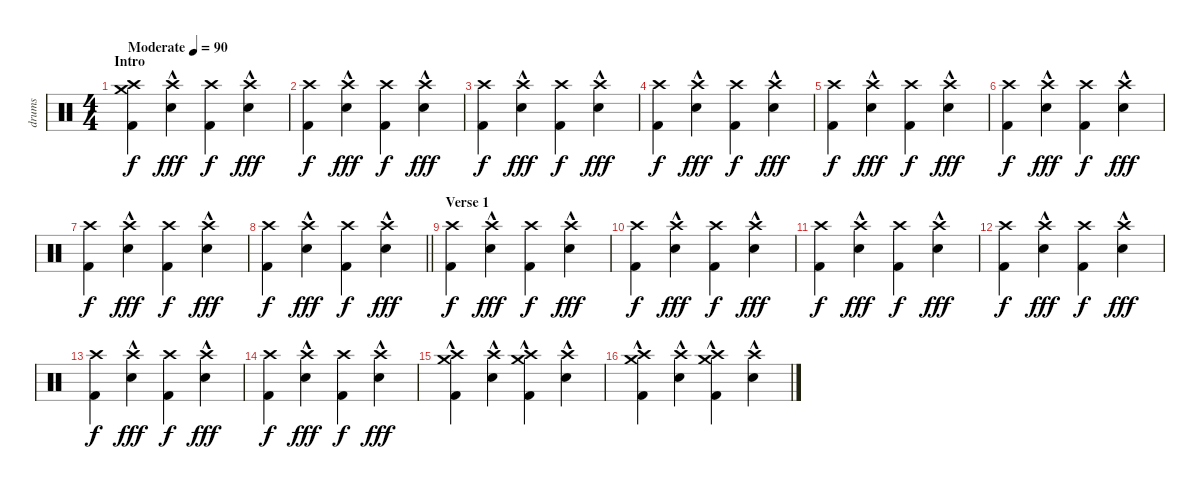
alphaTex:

\track ("drums" "drums") {instrument percussion}
\staff {score}
\articulation defaults
\ts (4 4)
\section ("" "Intro")
\tempo (90 "Moderate")
\clef neutral
\ks c
("Kick (hit) 2" "Crash medium (hit)" "Crash high (hit)").4{dy f} ("Electric Snare (hit)"{hac} "Crash high (hit)").4{dy fff} ("Kick (hit) 2" "Crash high (hit)").4{dy f} ("Electric Snare (hit)"{hac} "Crash high (hit)").4{dy fff} |
("Kick (hit) 2" "Crash high (hit)").4{dy f} ("Electric Snare (hit)"{hac} "Crash high (hit)").4{dy fff} ("Kick (hit) 2" "Crash high (hit)").4{dy f} ("Electric Snare (hit)"{hac} "Crash high (hit)").4{dy fff} |
("Kick (hit) 2" "Crash high (hit)").4{dy f} ("Electric Snare (hit)"{hac} "Crash high (hit)").4{dy fff} ("Kick (hit) 2" "Crash high (hit)").4{dy f} ("Electric Snare (hit)"{hac} "Crash high (hit)").4{dy fff} |
("Kick (hit) 2" "Crash high (hit)").4{dy f} ("Electric Snare (hit)"{hac} "Crash high (hit)").4{dy fff} ("Kick (hit) 2" "Crash high (hit)").4{dy f} ("Electric Snare (hit)"{hac} "Crash high (hit)").4{dy fff} |
("Kick (hit) 2" "Crash high (hit)").4{dy f} ("Electric Snare (hit)"{hac} "Crash high (hit)").4{dy fff} ("Kick (hit) 2" "Crash high (hit)").4{dy f} ("Electric Snare (hit)"{hac} "Crash high (hit)").4{dy fff} |
("Kick (hit) 2" "Crash high (hit)").4{dy f} ("Electric Snare (hit)"{hac} "Crash high (hit)").4{dy fff} ("Kick (hit) 2" "Crash high (hit)").4{dy f} ("Electric Snare (hit)"{hac} "Crash high (hit)").4{dy fff} |
("Kick (hit) 2" "Crash high (hit)").4{dy f} ("Electric Snare (hit)"{hac} "Crash high (hit)").4{dy fff} ("Kick (hit) 2" "Crash high (hit)").4{dy f} ("Electric Snare (hit)"{hac} "Crash high (hit)").4{dy fff} |
\barLineRight lightlight
("Kick (hit) 2" "Crash high (hit)").4{dy f} ("Electric Snare (hit)"{hac} "Crash high (hit)").4{dy fff} ("Kick (hit) 2" "Crash high (hit)").4{dy f} ("Electric Snare (hit)"{hac} "Crash high (hit)").4{dy fff} |
\section ("" "Verse 1")
("Kick (hit) 2" "Crash high (hit)").4{dy f} ("Electric Snare (hit)"{hac} "Crash high (hit)").4{dy fff} ("Kick (hit) 2" "Crash high (hit)").4{dy f} ("Electric Snare (hit)"{hac} "Crash high (hit)").4{dy fff} |
("Kick (hit) 2" "Crash high (hit)").4{dy f} ("Electric Snare (hit)"{hac} "Crash high (hit)").4{dy fff} ("Kick (hit) 2" "Crash high (hit)").4{dy f} ("Electric Snare (hit)"{hac} "Crash high (hit)").4{dy fff} |
("Kick (hit) 2" "Crash high (hit)").4{dy f} ("Electric Snare (hit)"{hac} "Crash high (hit)").4{dy fff} ("Kick (hit) 2" "Crash high (hit)").4{dy f} ("Electric Snare (hit)"{hac} "Crash high (hit)").4{dy fff} |
("Kick (hit) 2" "Crash high (hit)").4{dy f} ("Electric Snare (hit)"{hac} "Crash high (hit)").4{dy fff} ("Kick (hit) 2" "Crash high (hit)").4{dy f} ("Electric Snare (hit)"{hac} "Crash high (hit)").4{dy fff} |
("Kick (hit) 2" "Crash high (hit)").4{dy f} ("Electric Snare (hit)"{hac} "Crash high (hit)").4{dy fff} ("Kick (hit) 2" "Crash high (hit)").4{dy f} ("Electric Snare (hit)"{hac} "Crash high (hit)").4{dy fff} |
("Kick (hit) 2" "Crash high (hit)").4{dy f} ("Electric Snare (hit)"{hac} "Crash high (hit)").4{dy fff} ("Kick (hit) 2" "Crash high (hit)").4{dy f} ("Electric Snare (hit)"{hac} "Crash high (hit)").4{dy fff} |
("Kick (hit) 2" "Crash high (hit)"{hac} "Crash medium (hit)"{hac}).4 ("Electric Snare (hit)"{hac} "Crash high (hit)").4 ("Kick (hit) 2" "Crash high (hit)"{hac} "Crash medium (hit)"{hac}).4 ("Electric Snare (hit)"{hac} "Crash high (hit)").4 |
("Kick (hit) 2" "Crash high (hit)"{hac} "Crash medium (hit)"{hac}).4 ("Electric Snare (hit)"{hac} "Crash high (hit)").4 ("Kick (hit) 2" "Crash high (hit)"{hac} "Crash medium (hit)"{hac}).4 ("Electric Snare (hit)"{hac} "Crash high (hit)").4
